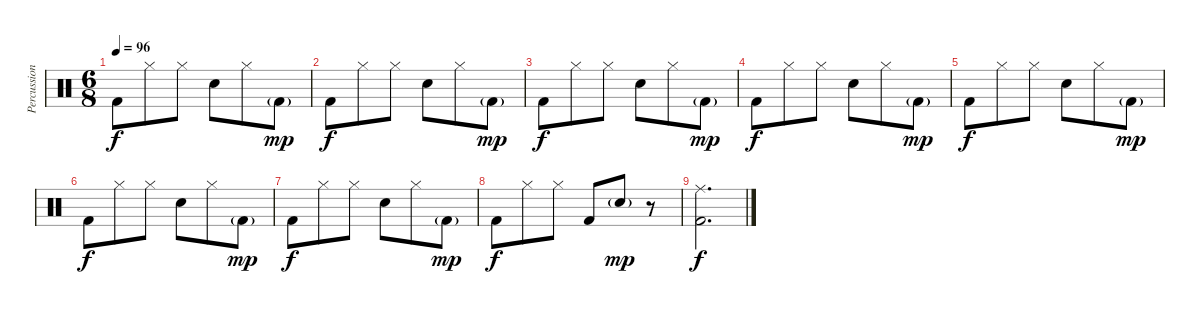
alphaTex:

\track ("Percussion" "Percussion") {instrument percussion}
\staff {score}
\articulation defaults
\ts (6 8)
\tempo 96
\clef neutral
\ks c "Kick (hit) 2".8{dy f} "Hi-Hat (closed)".8 "Hi-Hat (closed)".8 "Snare (hit) 2".8 "Hi-Hat (closed)".8 "Kick (hit) 2"{g}.8{dy mp}
|
"Kick (hit) 2".8{dy f} "Hi-Hat (closed)".8 "Hi-Hat (closed)".8 "Snare (hit) 2".8 "Hi-Hat (closed)".8 "Kick (hit) 2"{g}.8{dy mp} |
"Kick (hit) 2".8{dy f} "Hi-Hat (closed)".8 "Hi-Hat (closed)".8 "Snare (hit) 2".8 "Hi-Hat (closed)".8 "Kick (hit) 2"{g}.8{dy mp} |
"Kick (hit) 2".8{dy f} "Hi-Hat (closed)".8 "Hi-Hat (closed)".8 "Snare (hit) 2".8 "Hi-Hat (closed)".8 "Kick (hit) 2"{g}.8{dy mp} |
"Kick (hit) 2".8{dy f} "Hi-Hat (closed)".8 "Hi-Hat (closed)".8 "Snare (hit) 2".8 "Hi-Hat (closed)".8 "Kick (hit) 2"{g}.8{dy mp} |
"Kick (hit) 2".8{dy f} "Hi-Hat (closed)".8 "Hi-Hat (closed)".8 "Snare (hit) 2".8 "Hi-Hat (closed)".8 "Kick (hit) 2"{g}.8{dy mp} |
"Kick (hit) 2".8{dy f} "Hi-Hat (closed)".8 "Hi-Hat (closed)".8 "Snare (hit) 2".8 "Hi-Hat (closed)".8 "Kick (hit) 2"{g}.8{dy mp} |
"Kick (hit) 2".8{dy f} "Hi-Hat (closed)".8 "Hi-Hat (closed)".8 "Kick (hit) 2".8 "Snare (hit) 2"{g}.8{dy mp} r.8 |
("Ride (middle)" "Kick (hit) 2").2{d dy f}
